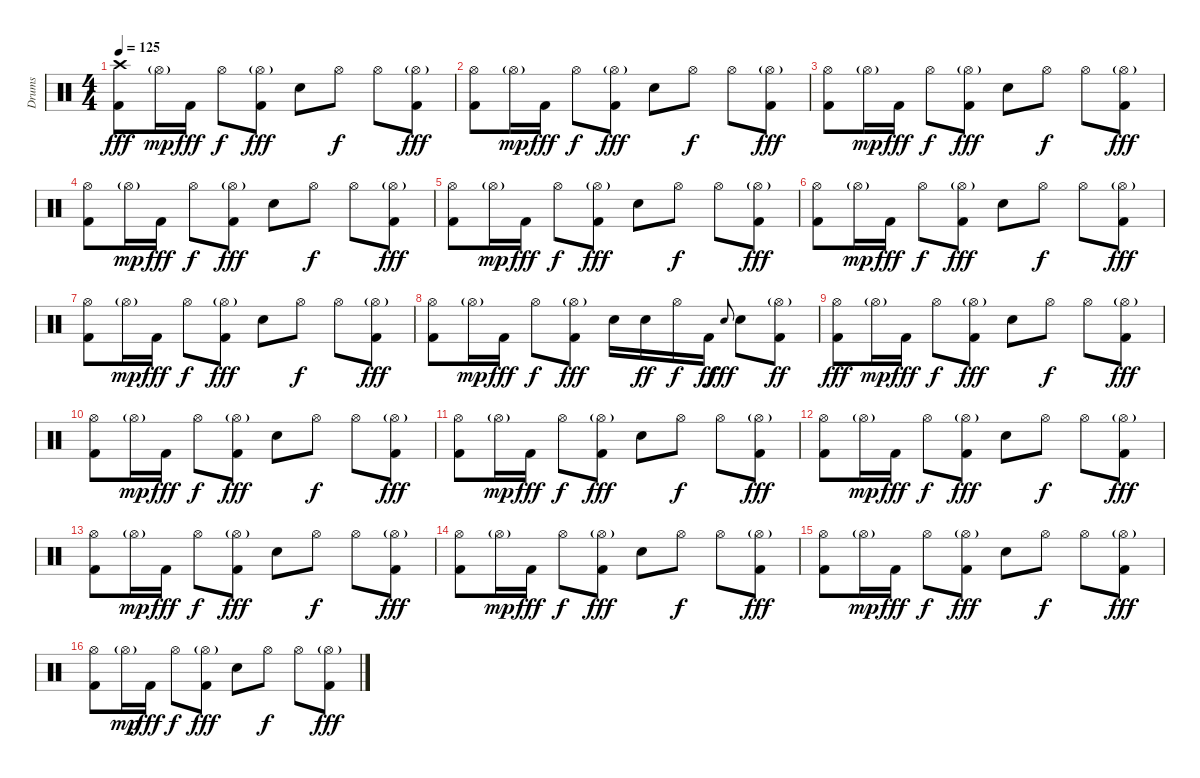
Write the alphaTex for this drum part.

\track ("Drums" "Drums") {instrument percussion}
\staff {score}
\articulation defaults
\ts (4 4)
\section ("" "")
\tempo 125
\clef neutral
\ks c
("Crash high (hit)" "Kick (hit) 2").8{dy fff} "Hi-Hat (open)"{g}.16{dy mp} "Kick (hit) 2".16{dy fff} "Hi-Hat (open)".8{dy f} ("Hi-Hat (open)"{g} "Kick (hit) 2").8{dy fff} "Snare (hit) 2".8 "Hi-Hat (open)".8{dy f} "Hi-Hat (open)".8 ("Hi-Hat (open)"{g} "Kick (hit) 2").8{dy fff} |
("Hi-Hat (open)" "Kick (hit) 2").8 "Hi-Hat (open)"{g}.16{dy mp} "Kick (hit) 2".16{dy fff} "Hi-Hat (open)".8{dy f} ("Hi-Hat (open)"{g} "Kick (hit) 2").8{dy fff} "Snare (hit) 2".8 "Hi-Hat (open)".8{dy f} "Hi-Hat (open)".8 ("Hi-Hat (open)"{g} "Kick (hit) 2").8{dy fff} |
("Hi-Hat (open)" "Kick (hit) 2").8 "Hi-Hat (open)"{g}.16{dy mp} "Kick (hit) 2".16{dy fff} "Hi-Hat (open)".8{dy f} ("Hi-Hat (open)"{g} "Kick (hit) 2").8{dy fff} "Snare (hit) 2".8 "Hi-Hat (open)".8{dy f} "Hi-Hat (open)".8 ("Hi-Hat (open)"{g} "Kick (hit) 2").8{dy fff} |
("Hi-Hat (open)" "Kick (hit) 2").8 "Hi-Hat (open)"{g}.16{dy mp} "Kick (hit) 2".16{dy fff} "Hi-Hat (open)".8{dy f} ("Hi-Hat (open)"{g} "Kick (hit) 2").8{dy fff} "Snare (hit) 2".8 "Hi-Hat (open)".8{dy f} "Hi-Hat (open)".8 ("Hi-Hat (open)"{g} "Kick (hit) 2").8{dy fff} |
("Hi-Hat (open)" "Kick (hit) 2").8 "Hi-Hat (open)"{g}.16{dy mp} "Kick (hit) 2".16{dy fff} "Hi-Hat (open)".8{dy f} ("Hi-Hat (open)"{g} "Kick (hit) 2").8{dy fff} "Snare (hit) 2".8 "Hi-Hat (open)".8{dy f} "Hi-Hat (open)".8 ("Hi-Hat (open)"{g} "Kick (hit) 2").8{dy fff} |
("Hi-Hat (open)" "Kick (hit) 2").8 "Hi-Hat (open)"{g}.16{dy mp} "Kick (hit) 2".16{dy fff} "Hi-Hat (open)".8{dy f} ("Hi-Hat (open)"{g} "Kick (hit) 2").8{dy fff} "Snare (hit) 2".8 "Hi-Hat (open)".8{dy f} "Hi-Hat (open)".8 ("Hi-Hat (open)"{g} "Kick (hit) 2").8{dy fff} |
("Hi-Hat (open)" "Kick (hit) 2").8 "Hi-Hat (open)"{g}.16{dy mp} "Kick (hit) 2".16{dy fff} "Hi-Hat (open)".8{dy f} ("Hi-Hat (open)"{g} "Kick (hit) 2").8{dy fff} "Snare (hit) 2".8 "Hi-Hat (open)".8{dy f} "Hi-Hat (open)".8 ("Hi-Hat (open)"{g} "Kick (hit) 2").8{dy fff} |
("Hi-Hat (open)" "Kick (hit) 2").8 "Hi-Hat (open)"{g}.16{dy mp} "Kick (hit) 2".16{dy fff} "Hi-Hat (open)".8{dy f} ("Hi-Hat (open)"{g} "Kick (hit) 2").8{dy fff} "Snare (hit) 2".16 "Snare (hit) 2".16{dy ff} "Hi-Hat (open)".16{dy f} "Kick (hit) 2".16{dy ff} "Snare (hit) 2".8{gr onbeat dy fff} "Snare (hit) 2".8 ("Hi-Hat (open)"{g} "Kick (hit) 2").8{dy ff} |
("Hi-Hat (open)" "Kick (hit) 2").8{dy fff} "Hi-Hat (open)"{g}.16{dy mp} "Kick (hit) 2".16{dy fff} "Hi-Hat (open)".8{dy f} ("Hi-Hat (open)"{g} "Kick (hit) 2").8{dy fff} "Snare (hit) 2".8 "Hi-Hat (open)".8{dy f} "Hi-Hat (open)".8 ("Hi-Hat (open)"{g} "Kick (hit) 2").8{dy fff} |
("Hi-Hat (open)" "Kick (hit) 2").8 "Hi-Hat (open)"{g}.16{dy mp} "Kick (hit) 2".16{dy fff} "Hi-Hat (open)".8{dy f} ("Hi-Hat (open)"{g} "Kick (hit) 2").8{dy fff} "Snare (hit) 2".8 "Hi-Hat (open)".8{dy f} "Hi-Hat (open)".8 ("Hi-Hat (open)"{g} "Kick (hit) 2").8{dy fff} |
("Hi-Hat (open)" "Kick (hit) 2").8 "Hi-Hat (open)"{g}.16{dy mp} "Kick (hit) 2".16{dy fff} "Hi-Hat (open)".8{dy f} ("Hi-Hat (open)"{g} "Kick (hit) 2").8{dy fff} "Snare (hit) 2".8 "Hi-Hat (open)".8{dy f} "Hi-Hat (open)".8 ("Hi-Hat (open)"{g} "Kick (hit) 2").8{dy fff} |
("Hi-Hat (open)" "Kick (hit) 2").8 "Hi-Hat (open)"{g}.16{dy mp} "Kick (hit) 2".16{dy fff} "Hi-Hat (open)".8{dy f} ("Hi-Hat (open)"{g} "Kick (hit) 2").8{dy fff} "Snare (hit) 2".8 "Hi-Hat (open)".8{dy f} "Hi-Hat (open)".8 ("Hi-Hat (open)"{g} "Kick (hit) 2").8{dy fff} |
("Hi-Hat (open)" "Kick (hit) 2").8 "Hi-Hat (open)"{g}.16{dy mp} "Kick (hit) 2".16{dy fff} "Hi-Hat (open)".8{dy f} ("Hi-Hat (open)"{g} "Kick (hit) 2").8{dy fff} "Snare (hit) 2".8 "Hi-Hat (open)".8{dy f} "Hi-Hat (open)".8 ("Hi-Hat (open)"{g} "Kick (hit) 2").8{dy fff} |
("Hi-Hat (open)" "Kick (hit) 2").8 "Hi-Hat (open)"{g}.16{dy mp} "Kick (hit) 2".16{dy fff} "Hi-Hat (open)".8{dy f} ("Hi-Hat (open)"{g} "Kick (hit) 2").8{dy fff} "Snare (hit) 2".8 "Hi-Hat (open)".8{dy f} "Hi-Hat (open)".8 ("Hi-Hat (open)"{g} "Kick (hit) 2").8{dy fff} |
("Hi-Hat (open)" "Kick (hit) 2").8 "Hi-Hat (open)"{g}.16{dy mp} "Kick (hit) 2".16{dy fff} "Hi-Hat (open)".8{dy f} ("Hi-Hat (open)"{g} "Kick (hit) 2").8{dy fff} "Snare (hit) 2".8 "Hi-Hat (open)".8{dy f} "Hi-Hat (open)".8 ("Hi-Hat (open)"{g} "Kick (hit) 2").8{dy fff} |
("Hi-Hat (open)" "Kick (hit) 2").8 "Hi-Hat (open)"{g}.16{dy mp} "Kick (hit) 2".16{dy fff} "Hi-Hat (open)".8{dy f} ("Hi-Hat (open)"{g} "Kick (hit) 2").8{dy fff} "Snare (hit) 2".8 "Hi-Hat (open)".8{dy f} "Hi-Hat (open)".8 ("Hi-Hat (open)"{g} "Kick (hit) 2").8{dy fff}
